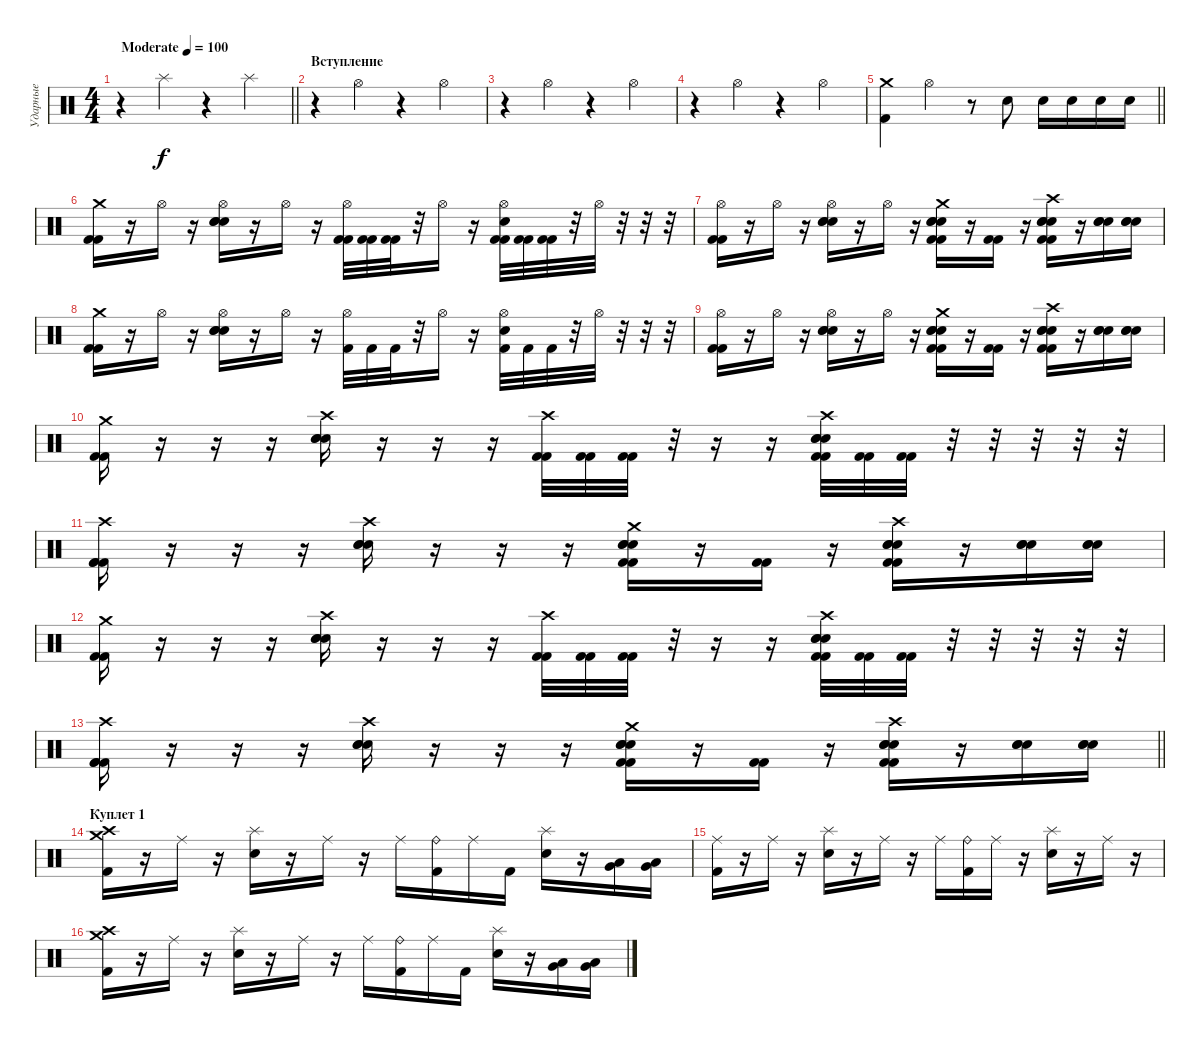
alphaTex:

\track ("Ударные" "Ударные") {instrument percussion}
\staff {score}
\articulation defaults
\ts (4 4)
\tempo (100 "Moderate")
\clef neutral
\barLineRight lightlight
\ks c
r.4{dy f} "Splash (hit)".4 r.4 "Splash (hit)".4 |
\section ("" "Вступление")
r.4 "Hi-Hat (open)".4 r.4 "Hi-Hat (open)".4 |
r.4 "Hi-Hat (open)".4 r.4 "Hi-Hat (open)".4 |
r.4 "Hi-Hat (open)".4 r.4 "Hi-Hat (open)".4 |
\barLineRight lightlight
("Crash medium (hit)" "Kick (hit) 2").4 "Hi-Hat (open)".4 r.8 "Electric Snare (hit)".8 "Electric Snare (hit)".16 "Electric Snare (hit)".16 "Electric Snare (hit)".16 "Electric Snare (hit)".16 |
\section ("" "")
("Crash medium (hit)" "Kick (hit) 2" "Kick (hit) 2").16 r.16 "Hi-Hat (open)".16 r.16 ("Hi-Hat (open)" "Electric Snare (hit)" "Electric Snare (hit)" "Electric Snare (hit)").16 r.16 "Hi-Hat (open)".16 r.16 ("Hi-Hat (open)" "Kick (hit) 2" "Kick (hit) 2").32 ("Kick (hit) 2" "Kick (hit) 2").32 ("Kick (hit) 2" "Kick (hit) 2").32 r.32 "Hi-Hat (open)".16 r.16 ("Hi-Hat (open)" "Electric Snare (hit)" "Kick (hit) 2" "Kick (hit) 2").32 ("Kick (hit) 2" "Kick (hit) 2").32 ("Kick (hit) 2" "Kick (hit) 2").32 r.32 "Hi-Hat (open)".32 r.32 r.32 r.32 |
("Hi-Hat (open)" "Kick (hit) 2" "Kick (hit) 2").16 r.16 "Hi-Hat (open)".16 r.16 ("Hi-Hat (open)" "Electric Snare (hit)" "Electric Snare (hit)" "Electric Snare (hit)").16 r.16 "Hi-Hat (open)".16 r.16 ("Crash medium (hit)" "Electric Snare (hit)" "Electric Snare (hit)" "Electric Snare (hit)" "Kick (hit) 2" "Kick (hit) 2").16 r.16 ("Kick (hit) 2" "Kick (hit) 2").16 r.16 ("Crash high (hit)" "Electric Snare (hit)" "Electric Snare (hit)" "Electric Snare (hit)" "Kick (hit) 2" "Kick (hit) 2").16 r.16 ("Electric Snare (hit)" "Electric Snare (hit)" "Electric Snare (hit)").16 ("Electric Snare (hit)" "Electric Snare (hit)" "Electric Snare (hit)").16 |
("Crash medium (hit)" "Kick (hit) 2" "Kick (hit) 2").16 r.16 "Hi-Hat (open)".16 r.16 ("Hi-Hat (open)" "Electric Snare (hit)" "Electric Snare (hit)" "Electric Snare (hit)").16 r.16 "Hi-Hat (open)".16 r.16 ("Hi-Hat (open)" "Kick (hit) 2").32 "Kick (hit) 2".32 "Kick (hit) 2".32 r.32 "Hi-Hat (open)".16 r.16 ("Hi-Hat (open)" "Electric Snare (hit)" "Kick (hit) 2").32 "Kick (hit) 2".32 "Kick (hit) 2".32 r.32 "Hi-Hat (open)".32 r.32 r.32 r.32 |
("Hi-Hat (open)" "Kick (hit) 2" "Kick (hit) 2").16 r.16 "Hi-Hat (open)".16 r.16 ("Hi-Hat (open)" "Electric Snare (hit)" "Electric Snare (hit)" "Electric Snare (hit)").16 r.16 "Hi-Hat (open)".16 r.16 ("Crash medium (hit)" "Electric Snare (hit)" "Electric Snare (hit)" "Electric Snare (hit)" "Kick (hit) 2" "Kick (hit) 2").16 r.16 ("Kick (hit) 2" "Kick (hit) 2").16 r.16 ("Crash high (hit)" "Electric Snare (hit)" "Electric Snare (hit)" "Electric Snare (hit)" "Kick (hit) 2" "Kick (hit) 2").16 r.16 ("Electric Snare (hit)" "Electric Snare (hit)" "Electric Snare (hit)").16 ("Electric Snare (hit)" "Electric Snare (hit)" "Electric Snare (hit)").16 |
("Crash medium (hit)" "Kick (hit) 2" "Kick (hit) 2").16 r.16 r.16 r.16 ("Electric Snare (hit)" "Crash high (hit)" "Electric Snare (hit)" "Electric Snare (hit)").16 r.16 r.16 r.16 ("Crash high (hit)" "Kick (hit) 2" "Kick (hit) 2").32 ("Kick (hit) 2" "Kick (hit) 2").32 ("Kick (hit) 2" "Kick (hit) 2").32 r.32 r.16 r.16 ("Electric Snare (hit)" "Crash high (hit)" "Electric Snare (hit)" "Electric Snare (hit)" "Kick (hit) 2" "Kick (hit) 2").32 ("Kick (hit) 2" "Kick (hit) 2").32 ("Kick (hit) 2" "Kick (hit) 2").32 r.32 r.32 r.32 r.32 r.32 |
("Crash high (hit)" "Kick (hit) 2" "Kick (hit) 2" "Kick (hit) 2").16 r.16 r.16 r.16 ("Crash high (hit)" "Electric Snare (hit)" "Electric Snare (hit)" "Electric Snare (hit)").16 r.16 r.16 r.16 ("Crash medium (hit)" "Electric Snare (hit)" "Electric Snare (hit)" "Electric Snare (hit)" "Kick (hit) 2" "Kick (hit) 2").16 r.16 ("Kick (hit) 2" "Kick (hit) 2").16 r.16 ("Crash high (hit)" "Electric Snare (hit)" "Electric Snare (hit)" "Electric Snare (hit)" "Kick (hit) 2" "Kick (hit) 2").16 r.16 ("Electric Snare (hit)" "Electric Snare (hit)" "Electric Snare (hit)").16 ("Electric Snare (hit)" "Electric Snare (hit)" "Electric Snare (hit)").16 |
("Crash medium (hit)" "Kick (hit) 2" "Kick (hit) 2").16 r.16 r.16 r.16 ("Electric Snare (hit)" "Crash high (hit)" "Electric Snare (hit)" "Electric Snare (hit)").16 r.16 r.16 r.16 ("Crash high (hit)" "Kick (hit) 2" "Kick (hit) 2").32 ("Kick (hit) 2" "Kick (hit) 2").32 ("Kick (hit) 2" "Kick (hit) 2").32 r.32 r.16 r.16 ("Electric Snare (hit)" "Crash high (hit)" "Electric Snare (hit)" "Electric Snare (hit)" "Kick (hit) 2" "Kick (hit) 2").32 ("Kick (hit) 2" "Kick (hit) 2").32 ("Kick (hit) 2" "Kick (hit) 2").32 r.32 r.32 r.32 r.32 r.32 |
\barLineRight lightlight
("Crash high (hit)" "Kick (hit) 2" "Kick (hit) 2" "Kick (hit) 2").16 r.16 r.16 r.16 ("Crash high (hit)" "Electric Snare (hit)" "Electric Snare (hit)" "Electric Snare (hit)").16 r.16 r.16 r.16 ("Crash medium (hit)" "Electric Snare (hit)" "Electric Snare (hit)" "Electric Snare (hit)" "Kick (hit) 2" "Kick (hit) 2").16 r.16 ("Kick (hit) 2" "Kick (hit) 2").16 r.16 ("Crash high (hit)" "Electric Snare (hit)" "Electric Snare (hit)" "Electric Snare (hit)" "Kick (hit) 2" "Kick (hit) 2").16 r.16 ("Electric Snare (hit)" "Electric Snare (hit)" "Electric Snare (hit)").16 ("Electric Snare (hit)" "Electric Snare (hit)" "Electric Snare (hit)").16 |
\section ("" "Куплет 1")
("Crash medium (hit)" "Crash high (hit)" "Kick (hit) 2").16 r.16 "Ride (middle)".16 r.16 ("Splash (hit)" "Electric Snare (hit)").16 r.16 "Ride (middle)".16 r.16 "Ride (middle)".16 ("Ride (bell)" "Kick (hit) 2").16 "Ride (middle)".16 "Kick (hit) 2".16 ("Splash (hit)" "Electric Snare (hit)").16 r.16 ("Very Low Tom (hit)" "Low Floor Tom (hit)").16 ("Very Low Tom (hit)" "Low Floor Tom (hit)").16 |
("Ride (middle)" "Kick (hit) 2").16 r.16 "Ride (middle)".16 r.16 ("Splash (hit)" "Electric Snare (hit)").16 r.16 "Ride (middle)".16 r.16 "Ride (middle)".16 ("Ride (bell)" "Kick (hit) 2").16 "Ride (middle)".16 r.16 ("Splash (hit)" "Electric Snare (hit)").16 r.16 "Ride (middle)".16 r.16 |
("Crash medium (hit)" "Crash high (hit)" "Kick (hit) 2").16 r.16 "Ride (middle)".16 r.16 ("Splash (hit)" "Electric Snare (hit)").16 r.16 "Ride (middle)".16 r.16 "Ride (middle)".16 ("Ride (bell)" "Kick (hit) 2").16 "Ride (middle)".16 "Kick (hit) 2".16 ("Splash (hit)" "Electric Snare (hit)").16 r.16 ("Very Low Tom (hit)" "Low Floor Tom (hit)").16 ("Very Low Tom (hit)" "Low Floor Tom (hit)").16
